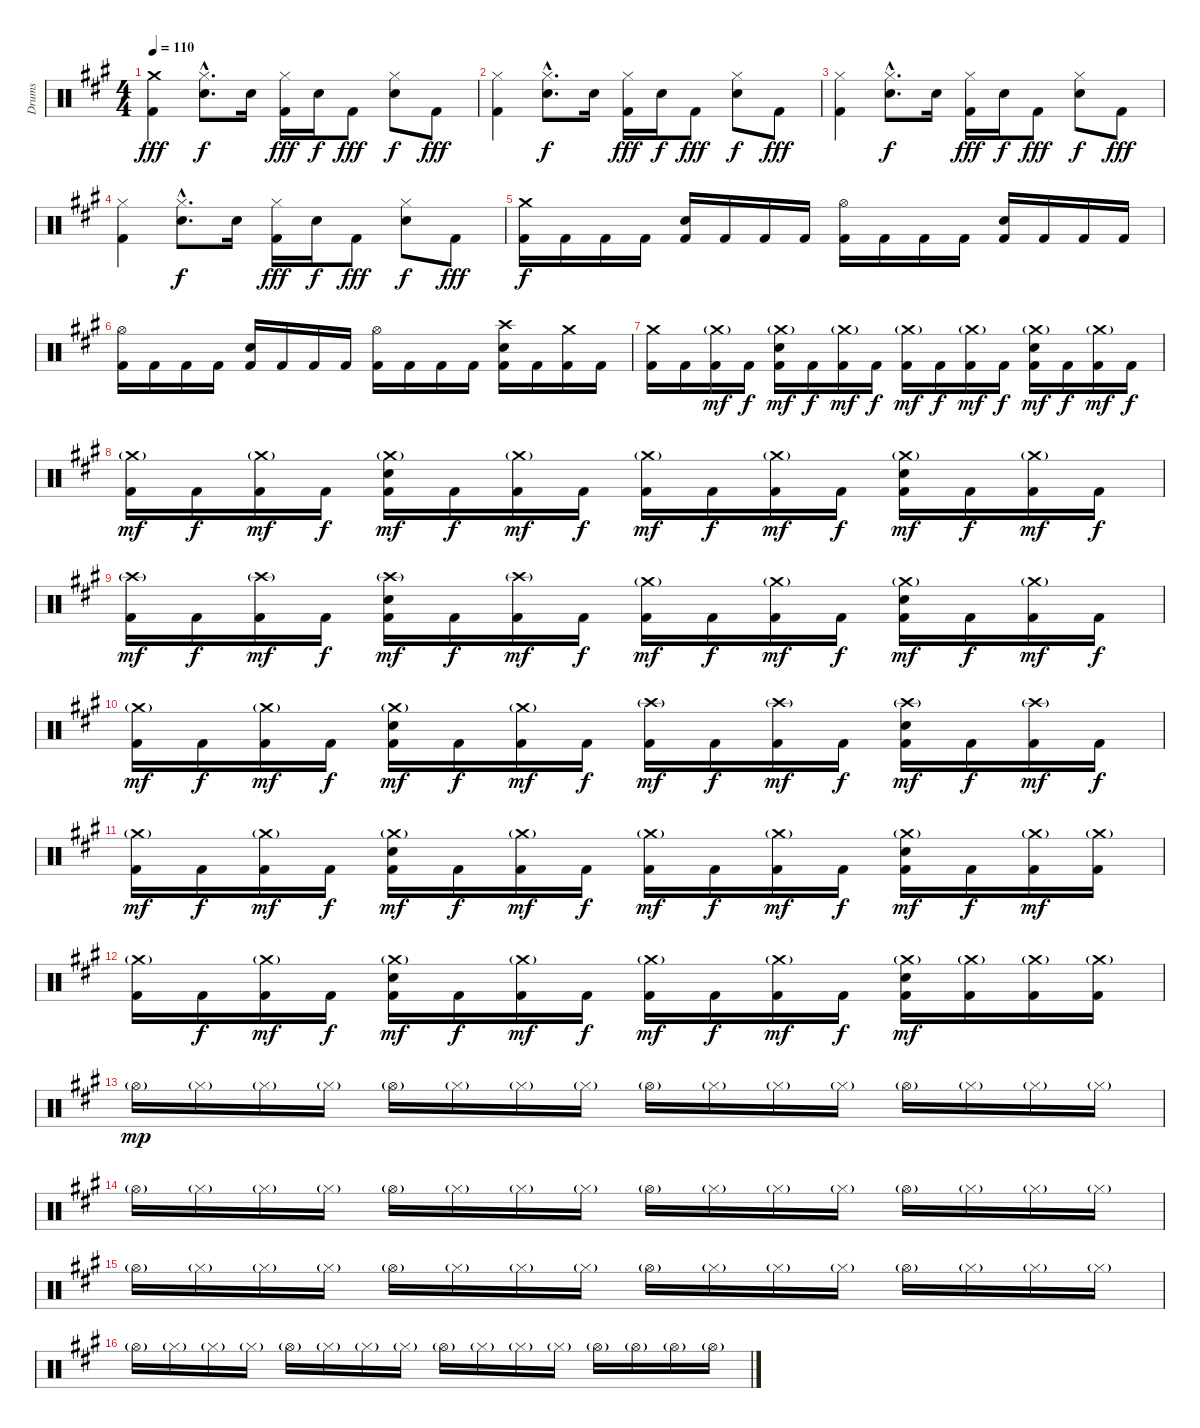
\track ("Drums" "Drums") {instrument percussion}
\staff {score}
\articulation defaults
\ts (4 4)
\tempo 110
\clef neutral
\ks a
("Crash medium (hit)" "Kick (hit) 2").4{dy fff} ("Hi-Hat (closed)"{hac} "Electric Snare (hit)"{hac}).8{d dy f} "Electric Snare (hit)".16 ("Hi-Hat (closed)" "Kick (hit) 2").16{dy fff} "Electric Snare (hit)".16{dy f} "Kick (hit) 2".8{dy fff} ("Hi-Hat (closed)" "Electric Snare (hit)").8{dy f} "Kick (hit) 2".8{dy fff} |
("Hi-Hat (closed)" "Kick (hit) 2").4 ("Hi-Hat (closed)"{hac} "Electric Snare (hit)"{hac}).8{d dy f} "Electric Snare (hit)".16 ("Hi-Hat (closed)" "Kick (hit) 2").16{dy fff} "Electric Snare (hit)".16{dy f} "Kick (hit) 2".8{dy fff} ("Hi-Hat (closed)" "Electric Snare (hit)").8{dy f} "Kick (hit) 2".8{dy fff} |
("Hi-Hat (closed)" "Kick (hit) 2").4 ("Hi-Hat (closed)"{hac} "Electric Snare (hit)"{hac}).8{d dy f} "Electric Snare (hit)".16 ("Hi-Hat (closed)" "Kick (hit) 2").16{dy fff} "Electric Snare (hit)".16{dy f} "Kick (hit) 2".8{dy fff} ("Hi-Hat (closed)" "Electric Snare (hit)").8{dy f} "Kick (hit) 2".8{dy fff} |
("Hi-Hat (closed)" "Kick (hit) 2").4 ("Hi-Hat (closed)"{hac} "Electric Snare (hit)"{hac}).8{d dy f} "Electric Snare (hit)".16 ("Hi-Hat (closed)" "Kick (hit) 2").16{dy fff} "Electric Snare (hit)".16{dy f} "Kick (hit) 2".8{dy fff} ("Hi-Hat (closed)" "Electric Snare (hit)").8{dy f} "Kick (hit) 2".8{dy fff} |
("Crash medium (hit)" "Kick (hit) 2").16{dy f} "Kick (hit) 2".16 "Kick (hit) 2".16 "Kick (hit) 2".16 ("Electric Snare (hit)" "Kick (hit) 2").16 "Kick (hit) 2".16 "Kick (hit) 2".16 "Kick (hit) 2".16 ("Hi-Hat (open)" "Kick (hit) 2").16 "Kick (hit) 2".16 "Kick (hit) 2".16 "Kick (hit) 2".16 ("Electric Snare (hit)" "Kick (hit) 2").16 "Kick (hit) 2".16 "Kick (hit) 2".16 "Kick (hit) 2".16 |
("Hi-Hat (open)" "Kick (hit) 2").16 "Kick (hit) 2".16 "Kick (hit) 2".16 "Kick (hit) 2".16 ("Electric Snare (hit)" "Kick (hit) 2").16 "Kick (hit) 2".16 "Kick (hit) 2".16 "Kick (hit) 2".16 ("Hi-Hat (open)" "Kick (hit) 2").16 "Kick (hit) 2".16 "Kick (hit) 2".16 "Kick (hit) 2".16 ("Crash high (hit)" "Electric Snare (hit)" "Kick (hit) 2").16 "Kick (hit) 2".16 ("Crash medium (hit)" "Kick (hit) 2").16 "Kick (hit) 2".16 |
("Crash medium (hit)" "Kick (hit) 2").16 "Kick (hit) 2".16 ("Crash medium (hit)"{g} "Kick (hit) 2").16{dy mf} "Kick (hit) 2".16{dy f} ("Crash medium (hit)"{g} "Electric Snare (hit)" "Kick (hit) 2").16{dy mf} "Kick (hit) 2".16{dy f} ("Crash medium (hit)"{g} "Kick (hit) 2").16{dy mf} "Kick (hit) 2".16{dy f} ("Crash medium (hit)"{g} "Kick (hit) 2").16{dy mf} "Kick (hit) 2".16{dy f} ("Crash medium (hit)"{g} "Kick (hit) 2").16{dy mf} "Kick (hit) 2".16{dy f} ("Crash medium (hit)"{g} "Electric Snare (hit)" "Kick (hit) 2").16{dy mf} "Kick (hit) 2".16{dy f} ("Crash medium (hit)"{g} "Kick (hit) 2").16{dy mf} "Kick (hit) 2".16{dy f} |
("Crash medium (hit)"{g} "Kick (hit) 2").16{dy mf} "Kick (hit) 2".16{dy f} ("Crash medium (hit)"{g} "Kick (hit) 2").16{dy mf} "Kick (hit) 2".16{dy f} ("Crash medium (hit)"{g} "Electric Snare (hit)" "Kick (hit) 2").16{dy mf} "Kick (hit) 2".16{dy f} ("Crash medium (hit)"{g} "Kick (hit) 2").16{dy mf} "Kick (hit) 2".16{dy f} ("Crash medium (hit)"{g} "Kick (hit) 2").16{dy mf} "Kick (hit) 2".16{dy f} ("Crash medium (hit)"{g} "Kick (hit) 2").16{dy mf} "Kick (hit) 2".16{dy f} ("Crash medium (hit)"{g} "Electric Snare (hit)" "Kick (hit) 2").16{dy mf} "Kick (hit) 2".16{dy f} ("Crash medium (hit)"{g} "Kick (hit) 2").16{dy mf} "Kick (hit) 2".16{dy f} |
("Crash high (hit)"{g} "Kick (hit) 2").16{dy mf} "Kick (hit) 2".16{dy f} ("Crash high (hit)"{g} "Kick (hit) 2").16{dy mf} "Kick (hit) 2".16{dy f} ("Crash high (hit)"{g} "Electric Snare (hit)" "Kick (hit) 2").16{dy mf} "Kick (hit) 2".16{dy f} ("Crash high (hit)"{g} "Kick (hit) 2").16{dy mf} "Kick (hit) 2".16{dy f} ("Crash medium (hit)"{g} "Kick (hit) 2").16{dy mf} "Kick (hit) 2".16{dy f} ("Crash medium (hit)"{g} "Kick (hit) 2").16{dy mf} "Kick (hit) 2".16{dy f} ("Crash medium (hit)"{g} "Electric Snare (hit)" "Kick (hit) 2").16{dy mf} "Kick (hit) 2".16{dy f} ("Crash medium (hit)"{g} "Kick (hit) 2").16{dy mf} "Kick (hit) 2".16{dy f} |
("Crash medium (hit)"{g} "Kick (hit) 2").16{dy mf} "Kick (hit) 2".16{dy f} ("Crash medium (hit)"{g} "Kick (hit) 2").16{dy mf} "Kick (hit) 2".16{dy f} ("Crash medium (hit)"{g} "Electric Snare (hit)" "Kick (hit) 2").16{dy mf} "Kick (hit) 2".16{dy f} ("Crash medium (hit)"{g} "Kick (hit) 2").16{dy mf} "Kick (hit) 2".16{dy f} ("Crash high (hit)"{g} "Kick (hit) 2").16{dy mf} "Kick (hit) 2".16{dy f} ("Crash high (hit)"{g} "Kick (hit) 2").16{dy mf} "Kick (hit) 2".16{dy f} ("Crash high (hit)"{g} "Electric Snare (hit)" "Kick (hit) 2").16{dy mf} "Kick (hit) 2".16{dy f} ("Crash high (hit)"{g} "Kick (hit) 2").16{dy mf} "Kick (hit) 2".16{dy f} |
("Crash medium (hit)"{g} "Kick (hit) 2").16{dy mf} "Kick (hit) 2".16{dy f} ("Crash medium (hit)"{g} "Kick (hit) 2").16{dy mf} "Kick (hit) 2".16{dy f} ("Crash medium (hit)"{g} "Electric Snare (hit)" "Kick (hit) 2").16{dy mf} "Kick (hit) 2".16{dy f} ("Crash medium (hit)"{g} "Kick (hit) 2").16{dy mf} "Kick (hit) 2".16{dy f} ("Crash medium (hit)"{g} "Kick (hit) 2").16{dy mf} "Kick (hit) 2".16{dy f} ("Crash medium (hit)"{g} "Kick (hit) 2").16{dy mf} "Kick (hit) 2".16{dy f} ("Crash medium (hit)"{g} "Electric Snare (hit)" "Kick (hit) 2").16{dy mf} "Kick (hit) 2".16{dy f} ("Crash medium (hit)"{g} "Kick (hit) 2").16{dy mf} ("Crash medium (hit)"{g} "Kick (hit) 2").16 |
("Crash medium (hit)"{g} "Kick (hit) 2").16 "Kick (hit) 2".16{dy f} ("Crash medium (hit)"{g} "Kick (hit) 2").16{dy mf} "Kick (hit) 2".16{dy f} ("Crash medium (hit)"{g} "Electric Snare (hit)" "Kick (hit) 2").16{dy mf} "Kick (hit) 2".16{dy f} ("Crash medium (hit)"{g} "Kick (hit) 2").16{dy mf} "Kick (hit) 2".16{dy f} ("Crash medium (hit)"{g} "Kick (hit) 2").16{dy mf} "Kick (hit) 2".16{dy f} ("Crash medium (hit)"{g} "Kick (hit) 2").16{dy mf} "Kick (hit) 2".16{dy f} ("Crash medium (hit)"{g} "Electric Snare (hit)" "Kick (hit) 2").16{dy mf} ("Crash medium (hit)"{g} "Kick (hit) 2").16 ("Crash medium (hit)"{g} "Kick (hit) 2").16 ("Crash medium (hit)"{g} "Kick (hit) 2").16 |
"Hi-Hat (open)"{g}.16{dy mp} "Hi-Hat (closed)"{g}.16 "Hi-Hat (closed)"{g}.16 "Hi-Hat (closed)"{g}.16 "Hi-Hat (open)"{g}.16 "Hi-Hat (closed)"{g}.16 "Hi-Hat (closed)"{g}.16 "Hi-Hat (closed)"{g}.16 "Hi-Hat (open)"{g}.16 "Hi-Hat (closed)"{g}.16 "Hi-Hat (closed)"{g}.16 "Hi-Hat (closed)"{g}.16 "Hi-Hat (open)"{g}.16 "Hi-Hat (closed)"{g}.16 "Hi-Hat (closed)"{g}.16 "Hi-Hat (closed)"{g}.16 |
"Hi-Hat (open)"{g}.16 "Hi-Hat (closed)"{g}.16 "Hi-Hat (closed)"{g}.16 "Hi-Hat (closed)"{g}.16 "Hi-Hat (open)"{g}.16 "Hi-Hat (closed)"{g}.16 "Hi-Hat (closed)"{g}.16 "Hi-Hat (closed)"{g}.16 "Hi-Hat (open)"{g}.16 "Hi-Hat (closed)"{g}.16 "Hi-Hat (closed)"{g}.16 "Hi-Hat (closed)"{g}.16 "Hi-Hat (open)"{g}.16 "Hi-Hat (closed)"{g}.16 "Hi-Hat (closed)"{g}.16 "Hi-Hat (closed)"{g}.16 |
"Hi-Hat (open)"{g}.16 "Hi-Hat (closed)"{g}.16 "Hi-Hat (closed)"{g}.16 "Hi-Hat (closed)"{g}.16 "Hi-Hat (open)"{g}.16 "Hi-Hat (closed)"{g}.16 "Hi-Hat (closed)"{g}.16 "Hi-Hat (closed)"{g}.16 "Hi-Hat (open)"{g}.16 "Hi-Hat (closed)"{g}.16 "Hi-Hat (closed)"{g}.16 "Hi-Hat (closed)"{g}.16 "Hi-Hat (open)"{g}.16 "Hi-Hat (closed)"{g}.16 "Hi-Hat (closed)"{g}.16 "Hi-Hat (closed)"{g}.16 |
"Hi-Hat (open)"{g}.16 "Hi-Hat (closed)"{g}.16 "Hi-Hat (closed)"{g}.16 "Hi-Hat (closed)"{g}.16 "Hi-Hat (open)"{g}.16 "Hi-Hat (closed)"{g}.16 "Hi-Hat (closed)"{g}.16 "Hi-Hat (closed)"{g}.16 "Hi-Hat (open)"{g}.16 "Hi-Hat (closed)"{g}.16 "Hi-Hat (closed)"{g}.16 "Hi-Hat (closed)"{g}.16 "Hi-Hat (open)"{g}.16 "Hi-Hat (open)"{g}.16 "Hi-Hat (open)"{g}.16 "Hi-Hat (open)"{g}.16
